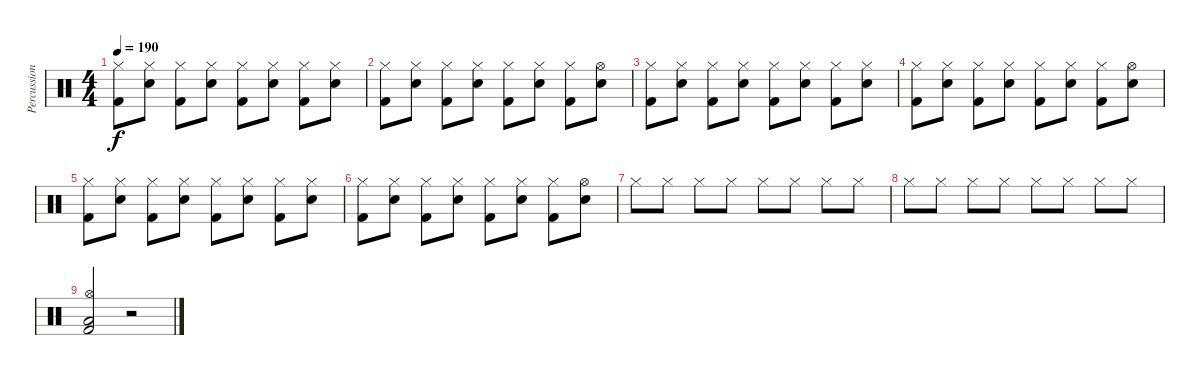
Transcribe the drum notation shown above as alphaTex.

\track ("Percussion" "Percussion") {instrument percussion}
\staff {score}
\articulation defaults
\ts (4 4)
\tempo 190
\clef neutral
\ks c
("Hi-Hat (closed)" "Kick (hit) 2").8{dy f} ("Hi-Hat (closed)" "Electric Snare (hit)").8 ("Hi-Hat (closed)" "Kick (hit) 2").8 ("Hi-Hat (closed)" "Electric Snare (hit)").8 ("Hi-Hat (closed)" "Kick (hit) 2").8 ("Hi-Hat (closed)" "Electric Snare (hit)").8 ("Hi-Hat (closed)" "Kick (hit) 2").8 ("Hi-Hat (closed)" "Electric Snare (hit)").8 |
("Hi-Hat (closed)" "Kick (hit) 2").8 ("Hi-Hat (closed)" "Electric Snare (hit)").8 ("Hi-Hat (closed)" "Kick (hit) 2").8 ("Hi-Hat (closed)" "Electric Snare (hit)").8 ("Hi-Hat (closed)" "Kick (hit) 2").8 ("Hi-Hat (closed)" "Electric Snare (hit)").8 ("Hi-Hat (closed)" "Kick (hit) 2").8 ("Hi-Hat (open)" "Electric Snare (hit)").8 |
("Hi-Hat (closed)" "Kick (hit) 2").8 ("Hi-Hat (closed)" "Electric Snare (hit)").8 ("Hi-Hat (closed)" "Kick (hit) 2").8 ("Hi-Hat (closed)" "Electric Snare (hit)").8 ("Hi-Hat (closed)" "Kick (hit) 2").8 ("Hi-Hat (closed)" "Electric Snare (hit)").8 ("Hi-Hat (closed)" "Kick (hit) 2").8 ("Hi-Hat (closed)" "Electric Snare (hit)").8 |
("Hi-Hat (closed)" "Kick (hit) 2").8 ("Hi-Hat (closed)" "Electric Snare (hit)").8 ("Hi-Hat (closed)" "Kick (hit) 2").8 ("Hi-Hat (closed)" "Electric Snare (hit)").8 ("Hi-Hat (closed)" "Kick (hit) 2").8 ("Hi-Hat (closed)" "Electric Snare (hit)").8 ("Hi-Hat (closed)" "Kick (hit) 2").8 ("Hi-Hat (open)" "Electric Snare (hit)").8 |
("Hi-Hat (closed)" "Kick (hit) 2").8 ("Hi-Hat (closed)" "Electric Snare (hit)").8 ("Hi-Hat (closed)" "Kick (hit) 2").8 ("Hi-Hat (closed)" "Electric Snare (hit)").8 ("Hi-Hat (closed)" "Kick (hit) 2").8 ("Hi-Hat (closed)" "Electric Snare (hit)").8 ("Hi-Hat (closed)" "Kick (hit) 2").8 ("Hi-Hat (closed)" "Electric Snare (hit)").8 |
("Hi-Hat (closed)" "Kick (hit) 2").8 ("Hi-Hat (closed)" "Electric Snare (hit)").8 ("Hi-Hat (closed)" "Kick (hit) 2").8 ("Hi-Hat (closed)" "Electric Snare (hit)").8 ("Hi-Hat (closed)" "Kick (hit) 2").8 ("Hi-Hat (closed)" "Electric Snare (hit)").8 ("Hi-Hat (closed)" "Kick (hit) 2").8 ("Hi-Hat (open)" "Electric Snare (hit)").8 |
"Hi-Hat (closed)".8 "Hi-Hat (closed)".8 "Hi-Hat (closed)".8 "Hi-Hat (closed)".8 "Hi-Hat (closed)".8 "Hi-Hat (closed)".8 "Hi-Hat (closed)".8 "Hi-Hat (closed)".8 |
"Hi-Hat (closed)".8 "Hi-Hat (closed)".8 "Hi-Hat (closed)".8 "Hi-Hat (closed)".8 "Hi-Hat (closed)".8 "Hi-Hat (closed)".8 "Hi-Hat (closed)".8 "Hi-Hat (closed)".8 |
("Hi-Hat (open)" "Low Floor Tom (hit)" "Kick (hit) 2").2 r.2
